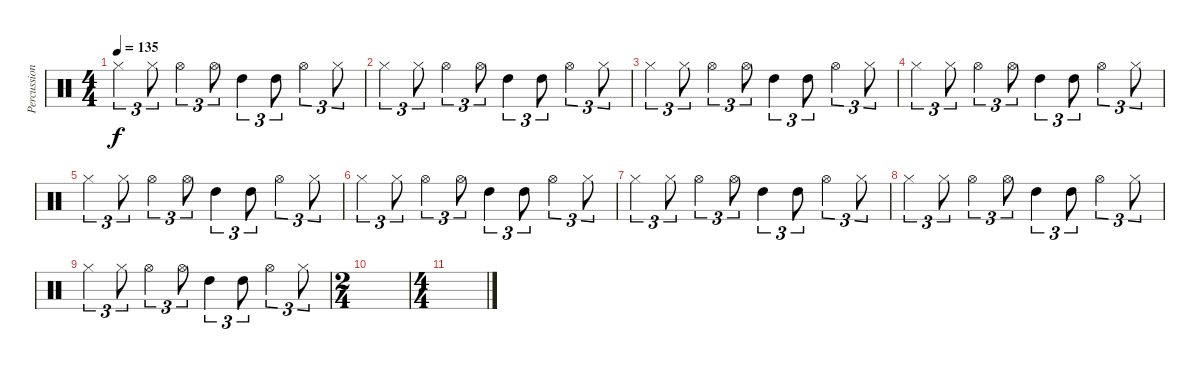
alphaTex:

\track ("Percussions" "Percussion") {instrument percussion}
\staff {score}
\articulation defaults
\ts (4 4)
\tempo 135
\clef neutral
\ks c "Hi-Hat (closed)".4{tu (3 2) dy f} "Hi-Hat (closed)".8{tu (3 2)} "Hi-Hat (open)".4{tu (3 2)} "Hi-Hat (open)".8{tu (3 2)} "High Tom (hit)".4{tu (3 2)} "High Tom (hit)".8{tu (3 2)} "Hi-Hat (open)".4{tu (3 2)} "Hi-Hat (closed)".8{tu (3 2)}
|
"Hi-Hat (closed)".4{tu (3 2)} "Hi-Hat (closed)".8{tu (3 2)} "Hi-Hat (open)".4{tu (3 2)} "Hi-Hat (open)".8{tu (3 2)} "High Tom (hit)".4{tu (3 2)} "High Tom (hit)".8{tu (3 2)} "Hi-Hat (open)".4{tu (3 2)} "Hi-Hat (closed)".8{tu (3 2)} |
"Hi-Hat (closed)".4{tu (3 2)} "Hi-Hat (closed)".8{tu (3 2)} "Hi-Hat (open)".4{tu (3 2)} "Hi-Hat (open)".8{tu (3 2)} "High Tom (hit)".4{tu (3 2)} "High Tom (hit)".8{tu (3 2)} "Hi-Hat (open)".4{tu (3 2)} "Hi-Hat (closed)".8{tu (3 2)} |
"Hi-Hat (closed)".4{tu (3 2)} "Hi-Hat (closed)".8{tu (3 2)} "Hi-Hat (open)".4{tu (3 2)} "Hi-Hat (open)".8{tu (3 2)} "High Tom (hit)".4{tu (3 2)} "High Tom (hit)".8{tu (3 2)} "Hi-Hat (open)".4{tu (3 2)} "Hi-Hat (closed)".8{tu (3 2)} |
"Hi-Hat (closed)".4{tu (3 2)} "Hi-Hat (closed)".8{tu (3 2)} "Hi-Hat (open)".4{tu (3 2)} "Hi-Hat (open)".8{tu (3 2)} "High Tom (hit)".4{tu (3 2)} "High Tom (hit)".8{tu (3 2)} "Hi-Hat (open)".4{tu (3 2)} "Hi-Hat (closed)".8{tu (3 2)} |
"Hi-Hat (closed)".4{tu (3 2)} "Hi-Hat (closed)".8{tu (3 2)} "Hi-Hat (open)".4{tu (3 2)} "Hi-Hat (open)".8{tu (3 2)} "High Tom (hit)".4{tu (3 2)} "High Tom (hit)".8{tu (3 2)} "Hi-Hat (open)".4{tu (3 2)} "Hi-Hat (closed)".8{tu (3 2)} |
"Hi-Hat (closed)".4{tu (3 2)} "Hi-Hat (closed)".8{tu (3 2)} "Hi-Hat (open)".4{tu (3 2)} "Hi-Hat (open)".8{tu (3 2)} "High Tom (hit)".4{tu (3 2)} "High Tom (hit)".8{tu (3 2)} "Hi-Hat (open)".4{tu (3 2)} "Hi-Hat (closed)".8{tu (3 2)} |
"Hi-Hat (closed)".4{tu (3 2)} "Hi-Hat (closed)".8{tu (3 2)} "Hi-Hat (open)".4{tu (3 2)} "Hi-Hat (open)".8{tu (3 2)} "High Tom (hit)".4{tu (3 2)} "High Tom (hit)".8{tu (3 2)} "Hi-Hat (open)".4{tu (3 2)} "Hi-Hat (closed)".8{tu (3 2)} |
"Hi-Hat (closed)".4{tu (3 2)} "Hi-Hat (closed)".8{tu (3 2)} "Hi-Hat (open)".4{tu (3 2)} "Hi-Hat (open)".8{tu (3 2)} "High Tom (hit)".4{tu (3 2)} "High Tom (hit)".8{tu (3 2)} "Hi-Hat (open)".4{tu (3 2)} "Hi-Hat (closed)".8{tu (3 2)} |
\ts (2 4)
|
\ts (4 4)
